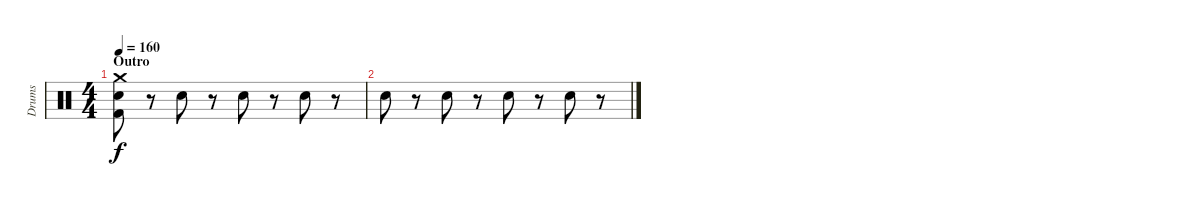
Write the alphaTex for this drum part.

\track ("Drums" "Drums") {instrument percussion}
\staff {score}
\articulation defaults
\ts (4 4)
\section ("" "Outro")
\tempo 160
\clef neutral
\ks c
("Crash medium (hit)" "Hand Clap (hit)" "Kick (hit) 2").8{dy f} r.8 "Hand Clap (hit)".8 r.8 "Hand Clap (hit)".8 r.8 "Hand Clap (hit)".8 r.8 |
"Hand Clap (hit)".8 r.8 "Hand Clap (hit)".8 r.8 "Hand Clap (hit)".8 r.8 "Hand Clap (hit)".8 r.8
